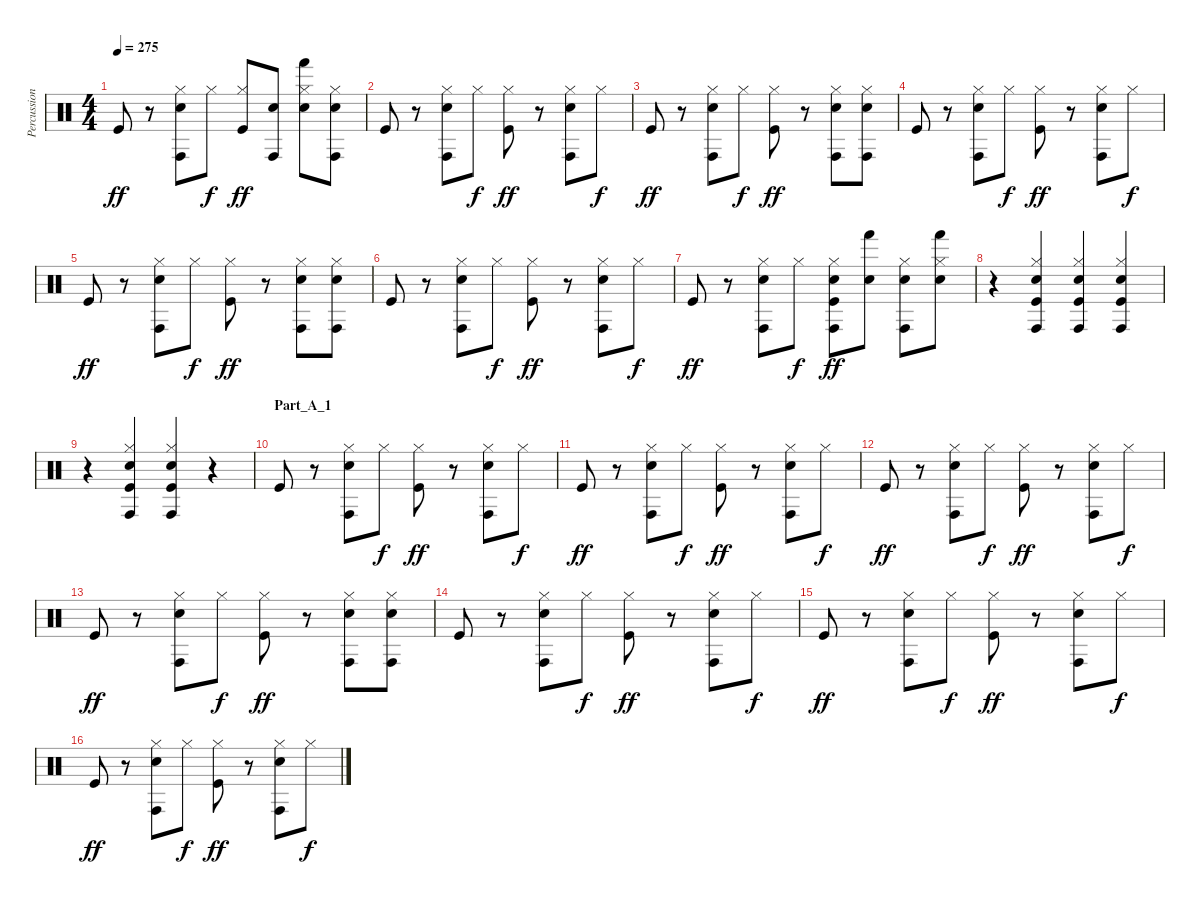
\track ("Percussion" "Percussion") {instrument percussion}
\staff {score}
\articulation defaults
\ts (4 4)
\tempo 275
\clef neutral
\ks c "Kick (hit)".8{dy ff}
r.8 ("Hi-Hat (closed)" "Conga high (hit)" "Electric Snare (hit)").8 "Hi-Hat (closed)".8{dy f} ("Hi-Hat (closed)" "Kick (hit)").8{dy ff} ("Conga high (hit)" "Electric Snare (hit)").8 ("Hi-Hat (closed)" "Hand (hit)" "Electric Snare (hit)").8 ("Hi-Hat (closed)" "Conga high (hit)" "Electric Snare (hit)").8 |
"Kick (hit)".8 r.8 ("Hi-Hat (closed)" "Conga high (hit)" "Electric Snare (hit)").8 "Hi-Hat (closed)".8{dy f} ("Hi-Hat (closed)" "Kick (hit)").8{dy ff} r.8 ("Hi-Hat (closed)" "Conga high (hit)" "Electric Snare (hit)").8 "Hi-Hat (closed)".8{dy f} |
"Kick (hit)".8{dy ff} r.8 ("Hi-Hat (closed)" "Conga high (hit)" "Electric Snare (hit)").8 "Hi-Hat (closed)".8{dy f} ("Hi-Hat (closed)" "Kick (hit)").8{dy ff} r.8 ("Hi-Hat (closed)" "Conga high (hit)" "Electric Snare (hit)").8 ("Hi-Hat (closed)" "Conga high (hit)" "Electric Snare (hit)").8 |
"Kick (hit)".8 r.8 ("Hi-Hat (closed)" "Conga high (hit)" "Electric Snare (hit)").8 "Hi-Hat (closed)".8{dy f} ("Hi-Hat (closed)" "Kick (hit)").8{dy ff} r.8 ("Hi-Hat (closed)" "Conga high (hit)" "Electric Snare (hit)").8 "Hi-Hat (closed)".8{dy f} |
"Kick (hit)".8{dy ff} r.8 ("Hi-Hat (closed)" "Conga high (hit)" "Electric Snare (hit)").8 "Hi-Hat (closed)".8{dy f} ("Hi-Hat (closed)" "Kick (hit)").8{dy ff} r.8 ("Hi-Hat (closed)" "Conga high (hit)" "Electric Snare (hit)").8 ("Hi-Hat (closed)" "Conga high (hit)" "Electric Snare (hit)").8 |
"Kick (hit)".8 r.8 ("Hi-Hat (closed)" "Conga high (hit)" "Electric Snare (hit)").8 "Hi-Hat (closed)".8{dy f} ("Hi-Hat (closed)" "Kick (hit)").8{dy ff} r.8 ("Hi-Hat (closed)" "Conga high (hit)" "Electric Snare (hit)").8 "Hi-Hat (closed)".8{dy f} |
"Kick (hit)".8{dy ff} r.8 ("Hi-Hat (closed)" "Conga high (hit)" "Electric Snare (hit)").8 "Hi-Hat (closed)".8{dy f} ("Hi-Hat (closed)" "Conga high (hit)" "Electric Snare (hit)" "Kick (hit)").8{dy ff} ("Hand (hit)" "Electric Snare (hit)").8 ("Hi-Hat (closed)" "Conga high (hit)" "Electric Snare (hit)").8 ("Hi-Hat (closed)" "Hand (hit)" "Electric Snare (hit)").8 |
r.4 ("Hi-Hat (closed)" "Conga high (hit)" "Electric Snare (hit)" "Kick (hit)").4 ("Hi-Hat (closed)" "Conga high (hit)" "Electric Snare (hit)" "Kick (hit)").4 ("Hi-Hat (closed)" "Conga high (hit)" "Electric Snare (hit)" "Kick (hit)").4 |
r.4 ("Hi-Hat (closed)" "Conga high (hit)" "Electric Snare (hit)" "Kick (hit)").4 ("Hi-Hat (closed)" "Conga high (hit)" "Electric Snare (hit)" "Kick (hit)").4 r.4 |
\section ("" "Part_A_1")
"Kick (hit)".8 r.8 ("Hi-Hat (closed)" "Conga high (hit)" "Electric Snare (hit)").8 "Hi-Hat (closed)".8{dy f} ("Hi-Hat (closed)" "Kick (hit)").8{dy ff} r.8 ("Hi-Hat (closed)" "Conga high (hit)" "Electric Snare (hit)").8 "Hi-Hat (closed)".8{dy f} |
"Kick (hit)".8{dy ff} r.8 ("Hi-Hat (closed)" "Conga high (hit)" "Electric Snare (hit)").8 "Hi-Hat (closed)".8{dy f} ("Hi-Hat (closed)" "Kick (hit)").8{dy ff} r.8 ("Hi-Hat (closed)" "Conga high (hit)" "Electric Snare (hit)").8 "Hi-Hat (closed)".8{dy f} |
"Kick (hit)".8{dy ff} r.8 ("Hi-Hat (closed)" "Conga high (hit)" "Electric Snare (hit)").8 "Hi-Hat (closed)".8{dy f} ("Hi-Hat (closed)" "Kick (hit)").8{dy ff} r.8 ("Hi-Hat (closed)" "Conga high (hit)" "Electric Snare (hit)").8 "Hi-Hat (closed)".8{dy f} |
"Kick (hit)".8{dy ff} r.8 ("Hi-Hat (closed)" "Conga high (hit)" "Electric Snare (hit)").8 "Hi-Hat (closed)".8{dy f} ("Hi-Hat (closed)" "Kick (hit)").8{dy ff} r.8 ("Hi-Hat (closed)" "Conga high (hit)" "Electric Snare (hit)").8 ("Hi-Hat (closed)" "Conga high (hit)" "Electric Snare (hit)").8 |
"Kick (hit)".8 r.8 ("Hi-Hat (closed)" "Conga high (hit)" "Electric Snare (hit)").8 "Hi-Hat (closed)".8{dy f} ("Hi-Hat (closed)" "Kick (hit)").8{dy ff} r.8 ("Hi-Hat (closed)" "Conga high (hit)" "Electric Snare (hit)").8 "Hi-Hat (closed)".8{dy f} |
"Kick (hit)".8{dy ff} r.8 ("Hi-Hat (closed)" "Conga high (hit)" "Electric Snare (hit)").8 "Hi-Hat (closed)".8{dy f} ("Hi-Hat (closed)" "Kick (hit)").8{dy ff} r.8 ("Hi-Hat (closed)" "Conga high (hit)" "Electric Snare (hit)").8 "Hi-Hat (closed)".8{dy f} |
"Kick (hit)".8{dy ff} r.8 ("Hi-Hat (closed)" "Conga high (hit)" "Electric Snare (hit)").8 "Hi-Hat (closed)".8{dy f} ("Hi-Hat (closed)" "Kick (hit)").8{dy ff} r.8 ("Hi-Hat (closed)" "Conga high (hit)" "Electric Snare (hit)").8 "Hi-Hat (closed)".8{dy f}
